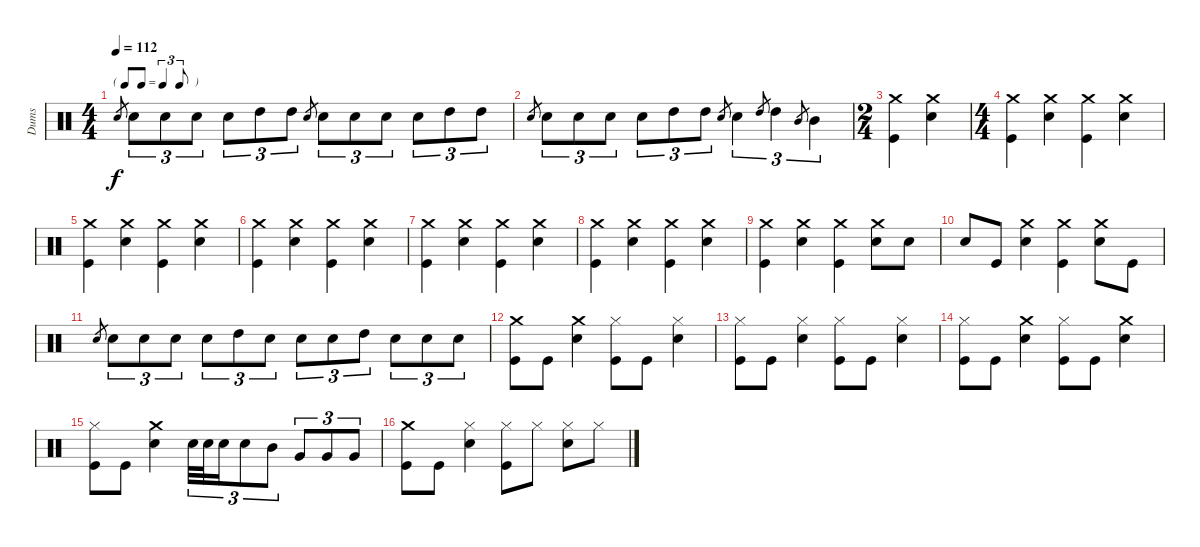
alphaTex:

\track ("Dums" "Dums") {instrument percussion}
\staff {score}
\articulation defaults
\ts (4 4)
\tf triplet8th
\tempo 112
\clef neutral
\ks c "Electric Snare (hit)".8{gr dy f} "Electric Snare (hit)".8{tu (3 2)} "Electric Snare (hit)".8{tu (3 2)} "Electric Snare (hit)".8{tu (3 2)} "Electric Snare (hit)".8{tu (3 2)} "High Tom (hit)".8{tu (3 2)} "High Tom (hit)".8{tu (3 2)} "Electric Snare (hit)".8{gr} "Electric Snare (hit)".8{tu (3 2)} "Electric Snare (hit)".8{tu (3 2)} "Electric Snare (hit)".8{tu (3 2)} "Electric Snare (hit)".8{tu (3 2)} "High Tom (hit)".8{tu (3 2)} "High Tom (hit)".8{tu (3 2)}
|
"Electric Snare (hit)".8{gr} "Electric Snare (hit)".8{tu (3 2)} "Electric Snare (hit)".8{tu (3 2)} "Electric Snare (hit)".8{tu (3 2)} "Electric Snare (hit)".8{tu (3 2)} "High Tom (hit)".8{tu (3 2)} "High Tom (hit)".8{tu (3 2)} "Electric Snare (hit)".8{gr} "Electric Snare (hit)".4{tu (3 2)} "High Tom (hit)".8{gr} "High Tom (hit)".4{tu (3 2)} "Mid Tom (hit)".8{gr} "Mid Tom (hit)".4{tu (3 2)} |
\ts (2 4)
("Kick (hit)" "Crash medium (hit)").4 ("Electric Snare (hit)" "Crash medium (hit)").4 |
\ts (4 4)
("Kick (hit)" "Crash medium (hit)").4 ("Electric Snare (hit)" "Crash medium (hit)").4 ("Kick (hit)" "Crash medium (hit)").4 ("Electric Snare (hit)" "Crash medium (hit)").4 |
("Kick (hit)" "Crash medium (hit)").4 ("Electric Snare (hit)" "Crash medium (hit)").4 ("Kick (hit)" "Crash medium (hit)").4 ("Electric Snare (hit)" "Crash medium (hit)").4 |
("Kick (hit)" "Crash medium (hit)").4 ("Electric Snare (hit)" "Crash medium (hit)").4 ("Kick (hit)" "Crash medium (hit)").4 ("Electric Snare (hit)" "Crash medium (hit)").4 |
("Kick (hit)" "Crash medium (hit)").4 ("Electric Snare (hit)" "Crash medium (hit)").4 ("Kick (hit)" "Crash medium (hit)").4 ("Electric Snare (hit)" "Crash medium (hit)").4 |
("Kick (hit)" "Crash medium (hit)").4 ("Electric Snare (hit)" "Crash medium (hit)").4 ("Kick (hit)" "Crash medium (hit)").4 ("Electric Snare (hit)" "Crash medium (hit)").4 |
("Kick (hit)" "Crash medium (hit)").4 ("Electric Snare (hit)" "Crash medium (hit)").4 ("Kick (hit)" "Crash medium (hit)").4 ("Electric Snare (hit)" "Crash medium (hit)").8 "Electric Snare (hit)".8 |
"Electric Snare (hit)".8 "Kick (hit)".8 ("Electric Snare (hit)" "Crash medium (hit)").4 ("Kick (hit)" "Crash medium (hit)").4 ("Electric Snare (hit)" "Crash medium (hit)").8 "Kick (hit)".8 |
"Electric Snare (hit)".8{gr} "Electric Snare (hit)".8{tu (3 2)} "Electric Snare (hit)".8{tu (3 2)} "Electric Snare (hit)".8{tu (3 2)} "Electric Snare (hit)".8{tu (3 2)} "High Tom (hit)".8{tu (3 2)} "Electric Snare (hit)".8{tu (3 2)} "Electric Snare (hit)".8{tu (3 2)} "Electric Snare (hit)".8{tu (3 2)} "High Tom (hit)".8{tu (3 2)} "Electric Snare (hit)".8{tu (3 2)} "Electric Snare (hit)".8{tu (3 2)} "Electric Snare (hit)".8{tu (3 2)} |
("Kick (hit)" "Crash medium (hit)").8 "Kick (hit)".8 ("Electric Snare (hit)" "Crash medium (hit)").4 ("Kick (hit)" "Hi-Hat (closed)").8 "Kick (hit)".8 ("Electric Snare (hit)" "Hi-Hat (closed)").4 |
("Kick (hit)" "Hi-Hat (closed)").8 "Kick (hit)".8 ("Electric Snare (hit)" "Hi-Hat (closed)").4 ("Kick (hit)" "Hi-Hat (closed)").8 "Kick (hit)".8 ("Electric Snare (hit)" "Hi-Hat (closed)").4 |
("Kick (hit)" "Hi-Hat (closed)").8 "Kick (hit)".8 ("Electric Snare (hit)" "Crash medium (hit)").4 ("Kick (hit)" "Hi-Hat (closed)").8 "Kick (hit)".8 ("Electric Snare (hit)" "Crash medium (hit)").4 |
("Kick (hit)" "Hi-Hat (closed)").8 "Kick (hit)".8 ("Electric Snare (hit)" "Crash medium (hit)").4 "Electric Snare (hit)".32{tu (3 2)} "Electric Snare (hit)".32{tu (3 2)} "Electric Snare (hit)".16{tu (3 2)} "Electric Snare (hit)".8{tu (3 2)} "Mid Tom (hit)".8{tu (3 2)} "Very Low Tom (hit)".8{tu (3 2)} "Very Low Tom (hit)".8{tu (3 2)} "Very Low Tom (hit)".8{tu (3 2)} |
("Kick (hit)" "Crash medium (hit)").8 "Kick (hit)".8 ("Electric Snare (hit)" "Hi-Hat (closed)").4 ("Kick (hit)" "Hi-Hat (closed)").8 "Hi-Hat (closed)".8 ("Electric Snare (hit)" "Hi-Hat (closed)").8 "Hi-Hat (closed)".8
